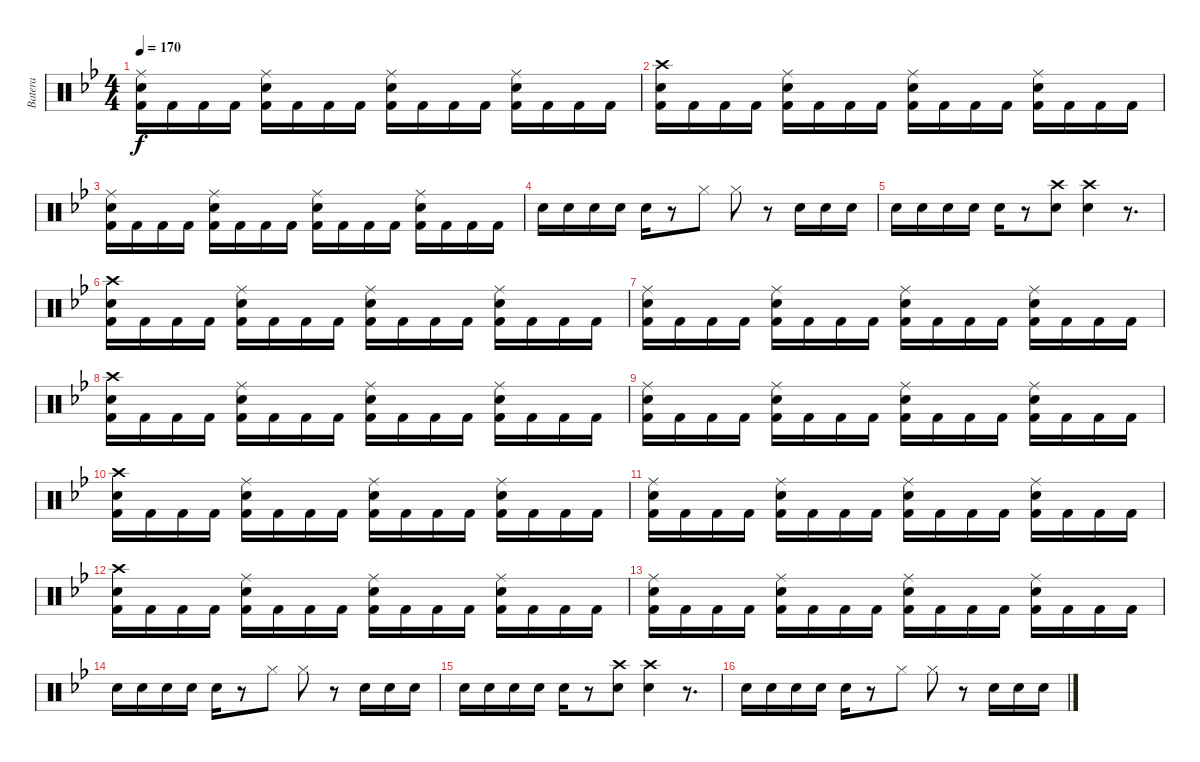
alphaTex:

\track ("Batera" "Batera") {instrument percussion}
\staff {score}
\articulation defaults
\ts (4 4)
\tempo 170
\clef neutral
\ks bb
("Ride (middle)" "Electric Snare (hit)" "Kick (hit) 2").16{dy f} "Kick (hit) 2".16 "Kick (hit) 2".16 "Kick (hit) 2".16 ("Ride (middle)" "Electric Snare (hit)" "Kick (hit) 2").16 "Kick (hit) 2".16 "Kick (hit) 2".16 "Kick (hit) 2".16 ("Ride (middle)" "Electric Snare (hit)" "Kick (hit) 2").16 "Kick (hit) 2".16 "Kick (hit) 2".16 "Kick (hit) 2".16 ("Ride (middle)" "Electric Snare (hit)" "Kick (hit) 2").16 "Kick (hit) 2".16 "Kick (hit) 2".16 "Kick (hit) 2".16 |
("Crash high (hit)" "Electric Snare (hit)" "Kick (hit) 2").16 "Kick (hit) 2".16 "Kick (hit) 2".16 "Kick (hit) 2".16 ("Ride (middle)" "Electric Snare (hit)" "Kick (hit) 2").16 "Kick (hit) 2".16 "Kick (hit) 2".16 "Kick (hit) 2".16 ("Ride (middle)" "Electric Snare (hit)" "Kick (hit) 2").16 "Kick (hit) 2".16 "Kick (hit) 2".16 "Kick (hit) 2".16 ("Ride (middle)" "Electric Snare (hit)" "Kick (hit) 2").16 "Kick (hit) 2".16 "Kick (hit) 2".16 "Kick (hit) 2".16 |
("Ride (middle)" "Electric Snare (hit)" "Kick (hit) 2").16 "Kick (hit) 2".16 "Kick (hit) 2".16 "Kick (hit) 2".16 ("Ride (middle)" "Electric Snare (hit)" "Kick (hit) 2").16 "Kick (hit) 2".16 "Kick (hit) 2".16 "Kick (hit) 2".16 ("Ride (middle)" "Electric Snare (hit)" "Kick (hit) 2").16 "Kick (hit) 2".16 "Kick (hit) 2".16 "Kick (hit) 2".16 ("Ride (middle)" "Electric Snare (hit)" "Kick (hit) 2").16 "Kick (hit) 2".16 "Kick (hit) 2".16 "Kick (hit) 2".16 |
"Electric Snare (hit)".16 "Electric Snare (hit)".16 "Electric Snare (hit)".16 "Electric Snare (hit)".16 "Electric Snare (hit)".16 r.8 "Hi-Hat (closed)".8 "Hi-Hat (closed)".8 r.8 "Electric Snare (hit)".16 "Electric Snare (hit)".16 "Electric Snare (hit)".16 |
"Electric Snare (hit)".16 "Electric Snare (hit)".16 "Electric Snare (hit)".16 "Electric Snare (hit)".16 "Electric Snare (hit)".16 r.8 ("Crash high (hit)" "Electric Snare (hit)").8 ("Crash high (hit)" "Electric Snare (hit)").4 r.8{d} |
("Crash high (hit)" "Electric Snare (hit)" "Kick (hit) 2").16 "Kick (hit) 2".16 "Kick (hit) 2".16 "Kick (hit) 2".16 ("Ride (middle)" "Electric Snare (hit)" "Kick (hit) 2").16 "Kick (hit) 2".16 "Kick (hit) 2".16 "Kick (hit) 2".16 ("Ride (middle)" "Electric Snare (hit)" "Kick (hit) 2").16 "Kick (hit) 2".16 "Kick (hit) 2".16 "Kick (hit) 2".16 ("Ride (middle)" "Electric Snare (hit)" "Kick (hit) 2").16 "Kick (hit) 2".16 "Kick (hit) 2".16 "Kick (hit) 2".16 |
("Ride (middle)" "Electric Snare (hit)" "Kick (hit) 2").16 "Kick (hit) 2".16 "Kick (hit) 2".16 "Kick (hit) 2".16 ("Ride (middle)" "Electric Snare (hit)" "Kick (hit) 2").16 "Kick (hit) 2".16 "Kick (hit) 2".16 "Kick (hit) 2".16 ("Ride (middle)" "Electric Snare (hit)" "Kick (hit) 2").16 "Kick (hit) 2".16 "Kick (hit) 2".16 "Kick (hit) 2".16 ("Ride (middle)" "Electric Snare (hit)" "Kick (hit) 2").16 "Kick (hit) 2".16 "Kick (hit) 2".16 "Kick (hit) 2".16 |
("Crash high (hit)" "Electric Snare (hit)" "Kick (hit) 2").16 "Kick (hit) 2".16 "Kick (hit) 2".16 "Kick (hit) 2".16 ("Ride (middle)" "Electric Snare (hit)" "Kick (hit) 2").16 "Kick (hit) 2".16 "Kick (hit) 2".16 "Kick (hit) 2".16 ("Ride (middle)" "Electric Snare (hit)" "Kick (hit) 2").16 "Kick (hit) 2".16 "Kick (hit) 2".16 "Kick (hit) 2".16 ("Ride (middle)" "Electric Snare (hit)" "Kick (hit) 2").16 "Kick (hit) 2".16 "Kick (hit) 2".16 "Kick (hit) 2".16 |
("Ride (middle)" "Electric Snare (hit)" "Kick (hit) 2").16 "Kick (hit) 2".16 "Kick (hit) 2".16 "Kick (hit) 2".16 ("Ride (middle)" "Electric Snare (hit)" "Kick (hit) 2").16 "Kick (hit) 2".16 "Kick (hit) 2".16 "Kick (hit) 2".16 ("Ride (middle)" "Electric Snare (hit)" "Kick (hit) 2").16 "Kick (hit) 2".16 "Kick (hit) 2".16 "Kick (hit) 2".16 ("Ride (middle)" "Electric Snare (hit)" "Kick (hit) 2").16 "Kick (hit) 2".16 "Kick (hit) 2".16 "Kick (hit) 2".16 |
("Crash high (hit)" "Electric Snare (hit)" "Kick (hit) 2").16 "Kick (hit) 2".16 "Kick (hit) 2".16 "Kick (hit) 2".16 ("Ride (middle)" "Electric Snare (hit)" "Kick (hit) 2").16 "Kick (hit) 2".16 "Kick (hit) 2".16 "Kick (hit) 2".16 ("Ride (middle)" "Electric Snare (hit)" "Kick (hit) 2").16 "Kick (hit) 2".16 "Kick (hit) 2".16 "Kick (hit) 2".16 ("Ride (middle)" "Electric Snare (hit)" "Kick (hit) 2").16 "Kick (hit) 2".16 "Kick (hit) 2".16 "Kick (hit) 2".16 |
("Ride (middle)" "Electric Snare (hit)" "Kick (hit) 2").16 "Kick (hit) 2".16 "Kick (hit) 2".16 "Kick (hit) 2".16 ("Ride (middle)" "Electric Snare (hit)" "Kick (hit) 2").16 "Kick (hit) 2".16 "Kick (hit) 2".16 "Kick (hit) 2".16 ("Ride (middle)" "Electric Snare (hit)" "Kick (hit) 2").16 "Kick (hit) 2".16 "Kick (hit) 2".16 "Kick (hit) 2".16 ("Ride (middle)" "Electric Snare (hit)" "Kick (hit) 2").16 "Kick (hit) 2".16 "Kick (hit) 2".16 "Kick (hit) 2".16 |
("Crash high (hit)" "Electric Snare (hit)" "Kick (hit) 2").16 "Kick (hit) 2".16 "Kick (hit) 2".16 "Kick (hit) 2".16 ("Ride (middle)" "Electric Snare (hit)" "Kick (hit) 2").16 "Kick (hit) 2".16 "Kick (hit) 2".16 "Kick (hit) 2".16 ("Ride (middle)" "Electric Snare (hit)" "Kick (hit) 2").16 "Kick (hit) 2".16 "Kick (hit) 2".16 "Kick (hit) 2".16 ("Ride (middle)" "Electric Snare (hit)" "Kick (hit) 2").16 "Kick (hit) 2".16 "Kick (hit) 2".16 "Kick (hit) 2".16 |
("Ride (middle)" "Electric Snare (hit)" "Kick (hit) 2").16 "Kick (hit) 2".16 "Kick (hit) 2".16 "Kick (hit) 2".16 ("Ride (middle)" "Electric Snare (hit)" "Kick (hit) 2").16 "Kick (hit) 2".16 "Kick (hit) 2".16 "Kick (hit) 2".16 ("Ride (middle)" "Electric Snare (hit)" "Kick (hit) 2").16 "Kick (hit) 2".16 "Kick (hit) 2".16 "Kick (hit) 2".16 ("Ride (middle)" "Electric Snare (hit)" "Kick (hit) 2").16 "Kick (hit) 2".16 "Kick (hit) 2".16 "Kick (hit) 2".16 |
"Electric Snare (hit)".16 "Electric Snare (hit)".16 "Electric Snare (hit)".16 "Electric Snare (hit)".16 "Electric Snare (hit)".16 r.8 "Hi-Hat (closed)".8 "Hi-Hat (closed)".8 r.8 "Electric Snare (hit)".16 "Electric Snare (hit)".16 "Electric Snare (hit)".16 |
"Electric Snare (hit)".16 "Electric Snare (hit)".16 "Electric Snare (hit)".16 "Electric Snare (hit)".16 "Electric Snare (hit)".16 r.8 ("Crash high (hit)" "Electric Snare (hit)").8 ("Crash high (hit)" "Electric Snare (hit)").4 r.8{d} |
"Electric Snare (hit)".16 "Electric Snare (hit)".16 "Electric Snare (hit)".16 "Electric Snare (hit)".16 "Electric Snare (hit)".16 r.8 "Hi-Hat (closed)".8 "Hi-Hat (closed)".8 r.8 "Electric Snare (hit)".16 "Electric Snare (hit)".16 "Electric Snare (hit)".16
